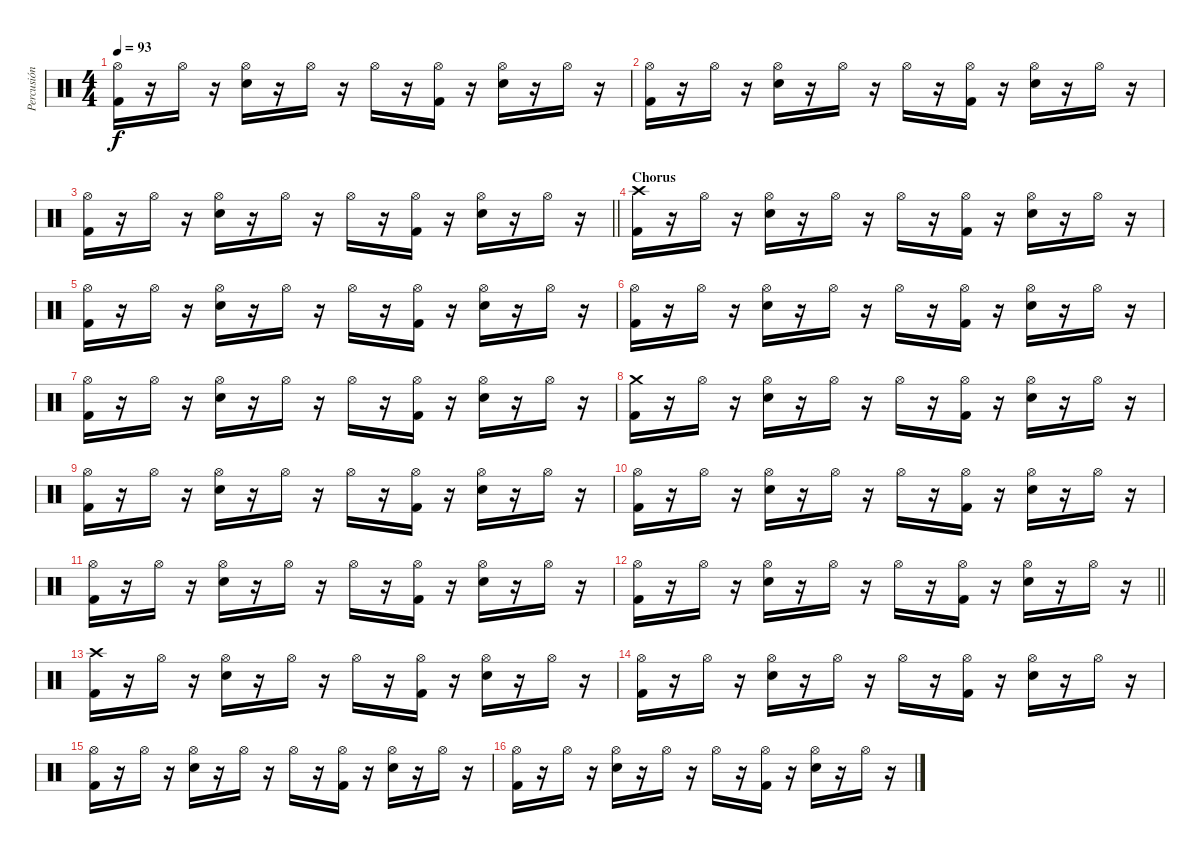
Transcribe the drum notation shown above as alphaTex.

\track ("Percusión" "Percusión") {instrument percussion}
\staff {score}
\articulation defaults
\ts (4 4)
\tempo 93
\clef neutral
\ks c
("Kick (hit) 2" "Hi-Hat (open)").16{dy f} r.16 "Hi-Hat (open)".16 r.16 ("Hi-Hat (open)" "Electric Snare (hit)").16 r.16 "Hi-Hat (open)".16 r.16 "Hi-Hat (open)".16 r.16 ("Hi-Hat (open)" "Kick (hit) 2").16 r.16 ("Hi-Hat (open)" "Electric Snare (hit)").16 r.16 "Hi-Hat (open)".16 r.16 |
("Kick (hit) 2" "Hi-Hat (open)").16 r.16 "Hi-Hat (open)".16 r.16 ("Hi-Hat (open)" "Electric Snare (hit)").16 r.16 "Hi-Hat (open)".16 r.16 "Hi-Hat (open)".16 r.16 ("Hi-Hat (open)" "Kick (hit) 2").16 r.16 ("Hi-Hat (open)" "Electric Snare (hit)").16 r.16 "Hi-Hat (open)".16 r.16 |
\barLineRight lightlight
("Kick (hit) 2" "Hi-Hat (open)").16 r.16 "Hi-Hat (open)".16 r.16 ("Hi-Hat (open)" "Electric Snare (hit)").16 r.16 "Hi-Hat (open)".16 r.16 "Hi-Hat (open)".16 r.16 ("Hi-Hat (open)" "Kick (hit) 2").16 r.16 ("Hi-Hat (open)" "Electric Snare (hit)").16 r.16 "Hi-Hat (open)".16 r.16 |
\section ("" "Chorus")
("Kick (hit) 2" "Crash high (hit)").16 r.16 "Hi-Hat (open)".16 r.16 ("Hi-Hat (open)" "Electric Snare (hit)").16 r.16 "Hi-Hat (open)".16 r.16 "Hi-Hat (open)".16 r.16 ("Hi-Hat (open)" "Kick (hit) 2").16 r.16 ("Hi-Hat (open)" "Electric Snare (hit)").16 r.16 "Hi-Hat (open)".16 r.16 |
("Kick (hit) 2" "Hi-Hat (open)").16 r.16 "Hi-Hat (open)".16 r.16 ("Hi-Hat (open)" "Electric Snare (hit)").16 r.16 "Hi-Hat (open)".16 r.16 "Hi-Hat (open)".16 r.16 ("Hi-Hat (open)" "Kick (hit) 2").16 r.16 ("Hi-Hat (open)" "Electric Snare (hit)").16 r.16 "Hi-Hat (open)".16 r.16 |
("Kick (hit) 2" "Hi-Hat (open)").16 r.16 "Hi-Hat (open)".16 r.16 ("Hi-Hat (open)" "Electric Snare (hit)").16 r.16 "Hi-Hat (open)".16 r.16 "Hi-Hat (open)".16 r.16 ("Hi-Hat (open)" "Kick (hit) 2").16 r.16 ("Hi-Hat (open)" "Electric Snare (hit)").16 r.16 "Hi-Hat (open)".16 r.16 |
("Kick (hit) 2" "Hi-Hat (open)").16 r.16 "Hi-Hat (open)".16 r.16 ("Hi-Hat (open)" "Electric Snare (hit)").16 r.16 "Hi-Hat (open)".16 r.16 "Hi-Hat (open)".16 r.16 ("Hi-Hat (open)" "Kick (hit) 2").16 r.16 ("Hi-Hat (open)" "Electric Snare (hit)").16 r.16 "Hi-Hat (open)".16 r.16 |
("Kick (hit) 2" "Crash medium (hit)").16 r.16 "Hi-Hat (open)".16 r.16 ("Hi-Hat (open)" "Electric Snare (hit)").16 r.16 "Hi-Hat (open)".16 r.16 "Hi-Hat (open)".16 r.16 ("Hi-Hat (open)" "Kick (hit) 2").16 r.16 ("Hi-Hat (open)" "Electric Snare (hit)").16 r.16 "Hi-Hat (open)".16 r.16 |
("Kick (hit) 2" "Hi-Hat (open)").16 r.16 "Hi-Hat (open)".16 r.16 ("Hi-Hat (open)" "Electric Snare (hit)").16 r.16 "Hi-Hat (open)".16 r.16 "Hi-Hat (open)".16 r.16 ("Hi-Hat (open)" "Kick (hit) 2").16 r.16 ("Hi-Hat (open)" "Electric Snare (hit)").16 r.16 "Hi-Hat (open)".16 r.16 |
("Kick (hit) 2" "Hi-Hat (open)").16 r.16 "Hi-Hat (open)".16 r.16 ("Hi-Hat (open)" "Electric Snare (hit)").16 r.16 "Hi-Hat (open)".16 r.16 "Hi-Hat (open)".16 r.16 ("Hi-Hat (open)" "Kick (hit) 2").16 r.16 ("Hi-Hat (open)" "Electric Snare (hit)").16 r.16 "Hi-Hat (open)".16 r.16 |
("Kick (hit) 2" "Hi-Hat (open)").16 r.16 "Hi-Hat (open)".16 r.16 ("Hi-Hat (open)" "Electric Snare (hit)").16 r.16 "Hi-Hat (open)".16 r.16 "Hi-Hat (open)".16 r.16 ("Hi-Hat (open)" "Kick (hit) 2").16 r.16 ("Hi-Hat (open)" "Electric Snare (hit)").16 r.16 "Hi-Hat (open)".16 r.16 |
\barLineRight lightlight
("Kick (hit) 2" "Hi-Hat (open)").16 r.16 "Hi-Hat (open)".16 r.16 ("Hi-Hat (open)" "Electric Snare (hit)").16 r.16 "Hi-Hat (open)".16 r.16 "Hi-Hat (open)".16 r.16 ("Hi-Hat (open)" "Kick (hit) 2").16 r.16 ("Hi-Hat (open)" "Electric Snare (hit)").16 r.16 "Hi-Hat (open)".16 r.16 |
("Kick (hit) 2" "Crash high (hit)").16 r.16 "Hi-Hat (open)".16 r.16 ("Hi-Hat (open)" "Electric Snare (hit)").16 r.16 "Hi-Hat (open)".16 r.16 "Hi-Hat (open)".16 r.16 ("Hi-Hat (open)" "Kick (hit) 2").16 r.16 ("Hi-Hat (open)" "Electric Snare (hit)").16 r.16 "Hi-Hat (open)".16 r.16 |
("Kick (hit) 2" "Hi-Hat (open)").16 r.16 "Hi-Hat (open)".16 r.16 ("Hi-Hat (open)" "Electric Snare (hit)").16 r.16 "Hi-Hat (open)".16 r.16 "Hi-Hat (open)".16 r.16 ("Hi-Hat (open)" "Kick (hit) 2").16 r.16 ("Hi-Hat (open)" "Electric Snare (hit)").16 r.16 "Hi-Hat (open)".16 r.16 |
("Kick (hit) 2" "Hi-Hat (open)").16 r.16 "Hi-Hat (open)".16 r.16 ("Hi-Hat (open)" "Electric Snare (hit)").16 r.16 "Hi-Hat (open)".16 r.16 "Hi-Hat (open)".16 r.16 ("Hi-Hat (open)" "Kick (hit) 2").16 r.16 ("Hi-Hat (open)" "Electric Snare (hit)").16 r.16 "Hi-Hat (open)".16 r.16 |
("Kick (hit) 2" "Hi-Hat (open)").16 r.16 "Hi-Hat (open)".16 r.16 ("Hi-Hat (open)" "Electric Snare (hit)").16 r.16 "Hi-Hat (open)".16 r.16 "Hi-Hat (open)".16 r.16 ("Hi-Hat (open)" "Kick (hit) 2").16 r.16 ("Hi-Hat (open)" "Electric Snare (hit)").16 r.16 "Hi-Hat (open)".16 r.16
